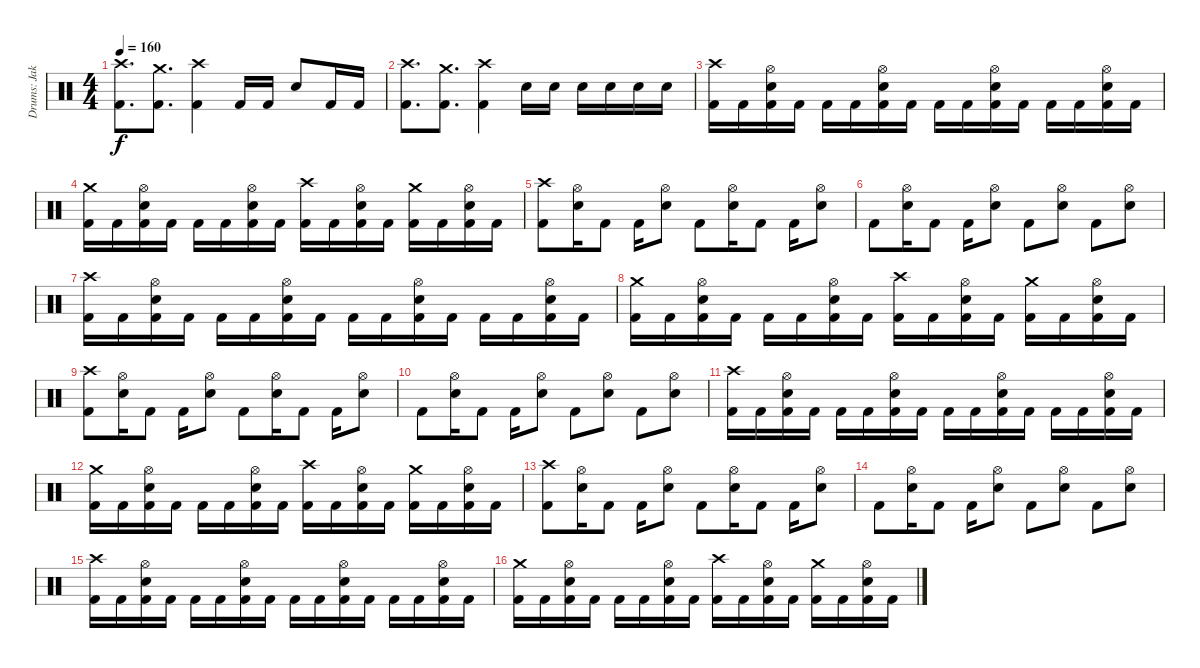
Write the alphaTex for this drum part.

\track ("Drums: Jake" "Drums: Jak") {instrument percussion}
\staff {score}
\articulation defaults
\ts (4 4)
\tempo 160
\clef neutral
\ks c
("Crash high (hit)" "Kick (hit) 2").8{d dy f} ("Crash medium (hit)" "Kick (hit) 2").8{d} ("Crash high (hit)" "Kick (hit) 2").4 "Kick (hit) 2".16 "Kick (hit) 2".16 "Snare (hit) 2".8 "Kick (hit) 2".16 "Kick (hit) 2".16 |
("Crash high (hit)" "Kick (hit) 2").8{d} ("Crash medium (hit)" "Kick (hit) 2").8{d} ("Crash high (hit)" "Kick (hit) 2").4 "Snare (hit) 2".16 "Snare (hit) 2".16 "Snare (hit) 2".16 "Snare (hit) 2".16 "Snare (hit) 2".16 "Snare (hit) 2".16 |
("Crash high (hit)" "Kick (hit) 2").16 "Kick (hit) 2".16 ("Hi-Hat (open)" "Snare (hit) 2" "Kick (hit) 2").16 "Kick (hit) 2".16 "Kick (hit) 2".16 "Kick (hit) 2".16 ("Hi-Hat (open)" "Snare (hit) 2" "Kick (hit) 2").16 "Kick (hit) 2".16 "Kick (hit) 2".16 "Kick (hit) 2".16 ("Hi-Hat (open)" "Snare (hit) 2" "Kick (hit) 2").16 "Kick (hit) 2".16 "Kick (hit) 2".16 "Kick (hit) 2".16 ("Hi-Hat (open)" "Snare (hit) 2" "Kick (hit) 2").16 "Kick (hit) 2".16 |
("Crash medium (hit)" "Kick (hit) 2").16 "Kick (hit) 2".16 ("Hi-Hat (open)" "Snare (hit) 2" "Kick (hit) 2").16 "Kick (hit) 2".16 "Kick (hit) 2".16 "Kick (hit) 2".16 ("Hi-Hat (open)" "Snare (hit) 2" "Kick (hit) 2").16 "Kick (hit) 2".16 ("Crash high (hit)" "Kick (hit) 2").16 "Kick (hit) 2".16 ("Hi-Hat (open)" "Snare (hit) 2" "Kick (hit) 2").16 "Kick (hit) 2".16 ("Crash medium (hit)" "Kick (hit) 2").16 "Kick (hit) 2".16 ("Hi-Hat (open)" "Snare (hit) 2" "Kick (hit) 2").16 "Kick (hit) 2".16 |
("Crash high (hit)" "Kick (hit) 2").8 ("Hi-Hat (open)" "Snare (hit) 2").16 "Kick (hit) 2".8 "Kick (hit) 2".16 ("Hi-Hat (open)" "Snare (hit) 2").8 "Kick (hit) 2".8 ("Hi-Hat (open)" "Snare (hit) 2").16 "Kick (hit) 2".8 "Kick (hit) 2".16 ("Hi-Hat (open)" "Snare (hit) 2").8 |
"Kick (hit) 2".8 ("Hi-Hat (open)" "Snare (hit) 2").16 "Kick (hit) 2".8 "Kick (hit) 2".16 ("Hi-Hat (open)" "Snare (hit) 2").8 "Kick (hit) 2".8 ("Hi-Hat (open)" "Snare (hit) 2").8 "Kick (hit) 2".8 ("Hi-Hat (open)" "Snare (hit) 2").8 |
("Crash high (hit)" "Kick (hit) 2").16 "Kick (hit) 2".16 ("Hi-Hat (open)" "Snare (hit) 2" "Kick (hit) 2").16 "Kick (hit) 2".16 "Kick (hit) 2".16 "Kick (hit) 2".16 ("Hi-Hat (open)" "Snare (hit) 2" "Kick (hit) 2").16 "Kick (hit) 2".16 "Kick (hit) 2".16 "Kick (hit) 2".16 ("Hi-Hat (open)" "Snare (hit) 2" "Kick (hit) 2").16 "Kick (hit) 2".16 "Kick (hit) 2".16 "Kick (hit) 2".16 ("Hi-Hat (open)" "Snare (hit) 2" "Kick (hit) 2").16 "Kick (hit) 2".16 |
("Crash medium (hit)" "Kick (hit) 2").16 "Kick (hit) 2".16 ("Hi-Hat (open)" "Snare (hit) 2" "Kick (hit) 2").16 "Kick (hit) 2".16 "Kick (hit) 2".16 "Kick (hit) 2".16 ("Hi-Hat (open)" "Snare (hit) 2" "Kick (hit) 2").16 "Kick (hit) 2".16 ("Crash high (hit)" "Kick (hit) 2").16 "Kick (hit) 2".16 ("Hi-Hat (open)" "Snare (hit) 2" "Kick (hit) 2").16 "Kick (hit) 2".16 ("Crash medium (hit)" "Kick (hit) 2").16 "Kick (hit) 2".16 ("Hi-Hat (open)" "Snare (hit) 2" "Kick (hit) 2").16 "Kick (hit) 2".16 |
("Crash high (hit)" "Kick (hit) 2").8 ("Hi-Hat (open)" "Snare (hit) 2").16 "Kick (hit) 2".8 "Kick (hit) 2".16 ("Hi-Hat (open)" "Snare (hit) 2").8 "Kick (hit) 2".8 ("Hi-Hat (open)" "Snare (hit) 2").16 "Kick (hit) 2".8 "Kick (hit) 2".16 ("Hi-Hat (open)" "Snare (hit) 2").8 |
"Kick (hit) 2".8 ("Hi-Hat (open)" "Snare (hit) 2").16 "Kick (hit) 2".8 "Kick (hit) 2".16 ("Hi-Hat (open)" "Snare (hit) 2").8 "Kick (hit) 2".8 ("Hi-Hat (open)" "Snare (hit) 2").8 "Kick (hit) 2".8 ("Hi-Hat (open)" "Snare (hit) 2").8 |
("Crash high (hit)" "Kick (hit) 2").16 "Kick (hit) 2".16 ("Hi-Hat (open)" "Snare (hit) 2" "Kick (hit) 2").16 "Kick (hit) 2".16 "Kick (hit) 2".16 "Kick (hit) 2".16 ("Hi-Hat (open)" "Snare (hit) 2" "Kick (hit) 2").16 "Kick (hit) 2".16 "Kick (hit) 2".16 "Kick (hit) 2".16 ("Hi-Hat (open)" "Snare (hit) 2" "Kick (hit) 2").16 "Kick (hit) 2".16 "Kick (hit) 2".16 "Kick (hit) 2".16 ("Hi-Hat (open)" "Snare (hit) 2" "Kick (hit) 2").16 "Kick (hit) 2".16 |
("Crash medium (hit)" "Kick (hit) 2").16 "Kick (hit) 2".16 ("Hi-Hat (open)" "Snare (hit) 2" "Kick (hit) 2").16 "Kick (hit) 2".16 "Kick (hit) 2".16 "Kick (hit) 2".16 ("Hi-Hat (open)" "Snare (hit) 2" "Kick (hit) 2").16 "Kick (hit) 2".16 ("Crash high (hit)" "Kick (hit) 2").16 "Kick (hit) 2".16 ("Hi-Hat (open)" "Snare (hit) 2" "Kick (hit) 2").16 "Kick (hit) 2".16 ("Crash medium (hit)" "Kick (hit) 2").16 "Kick (hit) 2".16 ("Hi-Hat (open)" "Snare (hit) 2" "Kick (hit) 2").16 "Kick (hit) 2".16 |
("Crash high (hit)" "Kick (hit) 2").8 ("Hi-Hat (open)" "Snare (hit) 2").16 "Kick (hit) 2".8 "Kick (hit) 2".16 ("Hi-Hat (open)" "Snare (hit) 2").8 "Kick (hit) 2".8 ("Hi-Hat (open)" "Snare (hit) 2").16 "Kick (hit) 2".8 "Kick (hit) 2".16 ("Hi-Hat (open)" "Snare (hit) 2").8 |
"Kick (hit) 2".8 ("Hi-Hat (open)" "Snare (hit) 2").16 "Kick (hit) 2".8 "Kick (hit) 2".16 ("Hi-Hat (open)" "Snare (hit) 2").8 "Kick (hit) 2".8 ("Hi-Hat (open)" "Snare (hit) 2").8 "Kick (hit) 2".8 ("Hi-Hat (open)" "Snare (hit) 2").8 |
("Crash high (hit)" "Kick (hit) 2").16 "Kick (hit) 2".16 ("Hi-Hat (open)" "Snare (hit) 2" "Kick (hit) 2").16 "Kick (hit) 2".16 "Kick (hit) 2".16 "Kick (hit) 2".16 ("Hi-Hat (open)" "Snare (hit) 2" "Kick (hit) 2").16 "Kick (hit) 2".16 "Kick (hit) 2".16 "Kick (hit) 2".16 ("Hi-Hat (open)" "Snare (hit) 2" "Kick (hit) 2").16 "Kick (hit) 2".16 "Kick (hit) 2".16 "Kick (hit) 2".16 ("Hi-Hat (open)" "Snare (hit) 2" "Kick (hit) 2").16 "Kick (hit) 2".16 |
("Crash medium (hit)" "Kick (hit) 2").16 "Kick (hit) 2".16 ("Hi-Hat (open)" "Snare (hit) 2" "Kick (hit) 2").16 "Kick (hit) 2".16 "Kick (hit) 2".16 "Kick (hit) 2".16 ("Hi-Hat (open)" "Snare (hit) 2" "Kick (hit) 2").16 "Kick (hit) 2".16 ("Crash high (hit)" "Kick (hit) 2").16 "Kick (hit) 2".16 ("Hi-Hat (open)" "Snare (hit) 2" "Kick (hit) 2").16 "Kick (hit) 2".16 ("Crash medium (hit)" "Kick (hit) 2").16 "Kick (hit) 2".16 ("Hi-Hat (open)" "Snare (hit) 2" "Kick (hit) 2").16 "Kick (hit) 2".16
